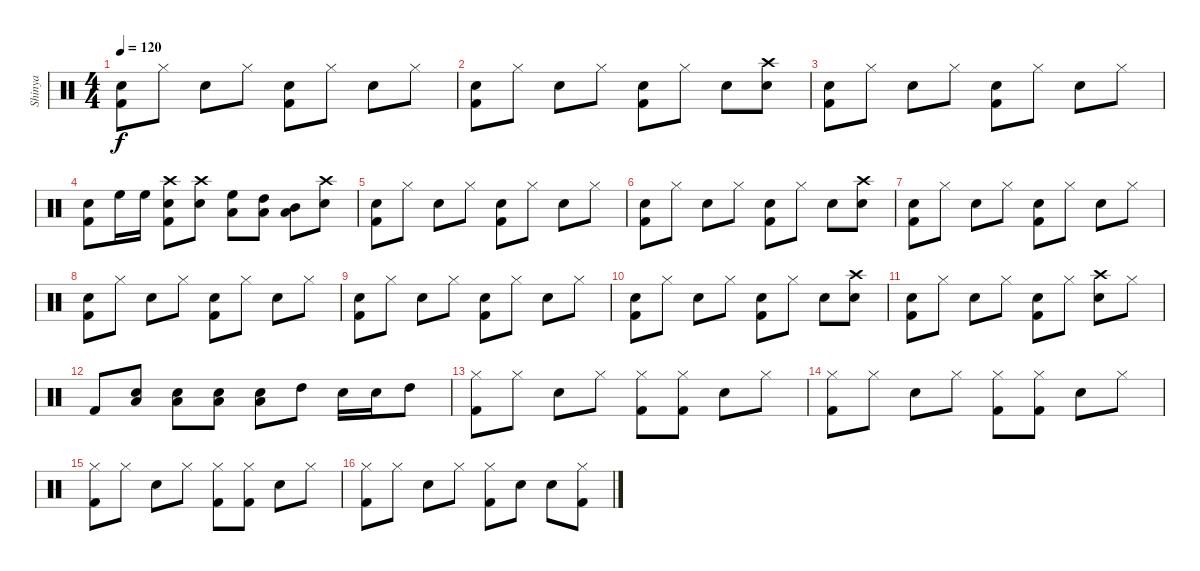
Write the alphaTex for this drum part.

\track ("Shinya" "Shinya") {instrument percussion}
\staff {score}
\articulation defaults
\ts (4 4)
\tempo 120
\clef neutral
\ks c
("Snare (hit)"{x} "Kick (hit) 2").8{dy f} "Hi-Hat (closed)".8 "Electric Snare (hit)".8 "Hi-Hat (closed)".8 ("Snare (hit)"{x} "Kick (hit) 2").8 "Hi-Hat (closed)".8 "Electric Snare (hit)".8 "Hi-Hat (closed)".8 |
("Snare (hit)"{x} "Kick (hit) 2").8 "Hi-Hat (closed)".8 "Electric Snare (hit)".8 "Hi-Hat (closed)".8 ("Snare (hit)"{x} "Kick (hit) 2").8 "Hi-Hat (closed)".8 "Electric Snare (hit)".8 ("Electric Snare (hit)" "Crash high (hit)").8 |
("Snare (hit)"{x} "Kick (hit) 2").8 "Hi-Hat (closed)".8 "Electric Snare (hit)".8 "Hi-Hat (closed)".8 ("Snare (hit)"{x} "Kick (hit) 2").8 "Hi-Hat (closed)".8 "Electric Snare (hit)".8 "Hi-Hat (closed)".8 |
("Snare (hit)"{x} "Kick (hit) 2").8 "High Floor Tom (hit)".16 "High Floor Tom (hit)".16 ("Crash high (hit)"{x} "Electric Snare (hit)"{x} "Kick (hit) 2").8 ("Crash high (hit)" "Electric Snare (hit)").8 ("High Floor Tom (hit)" "Low Floor Tom (hit)").8 ("High Tom (hit)" "Low Floor Tom (hit)").8 ("Mid Tom (hit)" "Low Floor Tom (hit)").8 ("Electric Snare (hit)" "Crash high (hit)").8 |
("Snare (hit)"{x} "Kick (hit) 2").8 "Hi-Hat (closed)".8 "Electric Snare (hit)".8 "Hi-Hat (closed)".8 ("Snare (hit)"{x} "Kick (hit) 2").8 "Hi-Hat (closed)".8 "Electric Snare (hit)".8 "Hi-Hat (closed)".8 |
("Snare (hit)"{x} "Kick (hit) 2").8 "Hi-Hat (closed)".8 "Electric Snare (hit)".8 "Hi-Hat (closed)".8 ("Snare (hit)"{x} "Kick (hit) 2").8 "Hi-Hat (closed)".8 "Electric Snare (hit)".8 ("Electric Snare (hit)" "Crash high (hit)").8 |
("Snare (hit)"{x} "Kick (hit) 2").8 "Hi-Hat (closed)".8 "Electric Snare (hit)".8 "Hi-Hat (closed)".8 ("Snare (hit)"{x} "Kick (hit) 2").8 "Hi-Hat (closed)".8 "Electric Snare (hit)".8 "Hi-Hat (closed)".8 |
("Snare (hit)"{x} "Kick (hit) 2").8 "Hi-Hat (closed)".8 "Electric Snare (hit)".8 "Hi-Hat (closed)".8 ("Snare (hit)"{x} "Kick (hit) 2").8 "Hi-Hat (closed)".8 "Electric Snare (hit)".8 "Hi-Hat (closed)".8 |
("Snare (hit)"{x} "Kick (hit) 2").8 "Hi-Hat (closed)".8 "Electric Snare (hit)".8 "Hi-Hat (closed)".8 ("Snare (hit)"{x} "Kick (hit) 2").8 "Hi-Hat (closed)".8 "Electric Snare (hit)".8 "Hi-Hat (closed)".8 |
("Snare (hit)"{x} "Kick (hit) 2").8 "Hi-Hat (closed)".8 "Electric Snare (hit)".8 "Hi-Hat (closed)".8 ("Snare (hit)"{x} "Kick (hit) 2").8 "Hi-Hat (closed)".8 "Electric Snare (hit)".8 ("Electric Snare (hit)" "Crash high (hit)").8 |
("Snare (hit)"{x} "Kick (hit) 2").8 "Hi-Hat (closed)".8 "Electric Snare (hit)".8 "Hi-Hat (closed)".8 ("Snare (hit)"{x} "Kick (hit) 2").8 "Hi-Hat (closed)".8 ("Electric Snare (hit)" "Crash high (hit)").8 "Hi-Hat (closed)".8 |
"Kick (hit) 2".8 ("Electric Snare (hit)" "Low Floor Tom (hit)").8{volume 9} ("Electric Snare (hit)" "Low Floor Tom (hit)").8{volume 11} ("Electric Snare (hit)" "Low Floor Tom (hit)").8{volume 13} ("Electric Snare (hit)" "Low Floor Tom (hit)").8 "High Tom (hit)".8 "Electric Snare (hit)".16 "Electric Snare (hit)".16 "High Tom (hit)".8 |
("Hi-Hat (closed)" "Kick (hit) 2").8 "Hi-Hat (closed)".8 "Electric Snare (hit)".8 "Hi-Hat (closed)".8 ("Hi-Hat (closed)" "Kick (hit) 2").8 ("Hi-Hat (closed)" "Kick (hit) 2").8 "Electric Snare (hit)".8 "Hi-Hat (closed)".8 |
("Hi-Hat (closed)" "Kick (hit) 2").8 "Hi-Hat (closed)".8 "Electric Snare (hit)".8 "Hi-Hat (closed)".8 ("Hi-Hat (closed)" "Kick (hit) 2").8 ("Hi-Hat (closed)" "Kick (hit) 2").8 "Electric Snare (hit)".8 "Hi-Hat (closed)".8 |
("Hi-Hat (closed)" "Kick (hit) 2").8 "Hi-Hat (closed)".8 "Electric Snare (hit)".8 "Hi-Hat (closed)".8 ("Hi-Hat (closed)" "Kick (hit) 2").8 ("Hi-Hat (closed)" "Kick (hit) 2").8 "Electric Snare (hit)".8 "Hi-Hat (closed)".8 |
("Hi-Hat (closed)" "Kick (hit) 2").8 "Hi-Hat (closed)".8 "Electric Snare (hit)".8 "Hi-Hat (closed)".8 ("Hi-Hat (closed)" "Kick (hit) 2").8 "Electric Snare (hit)".8 "Electric Snare (hit)".8 ("Hi-Hat (closed)" "Kick (hit) 2").8
